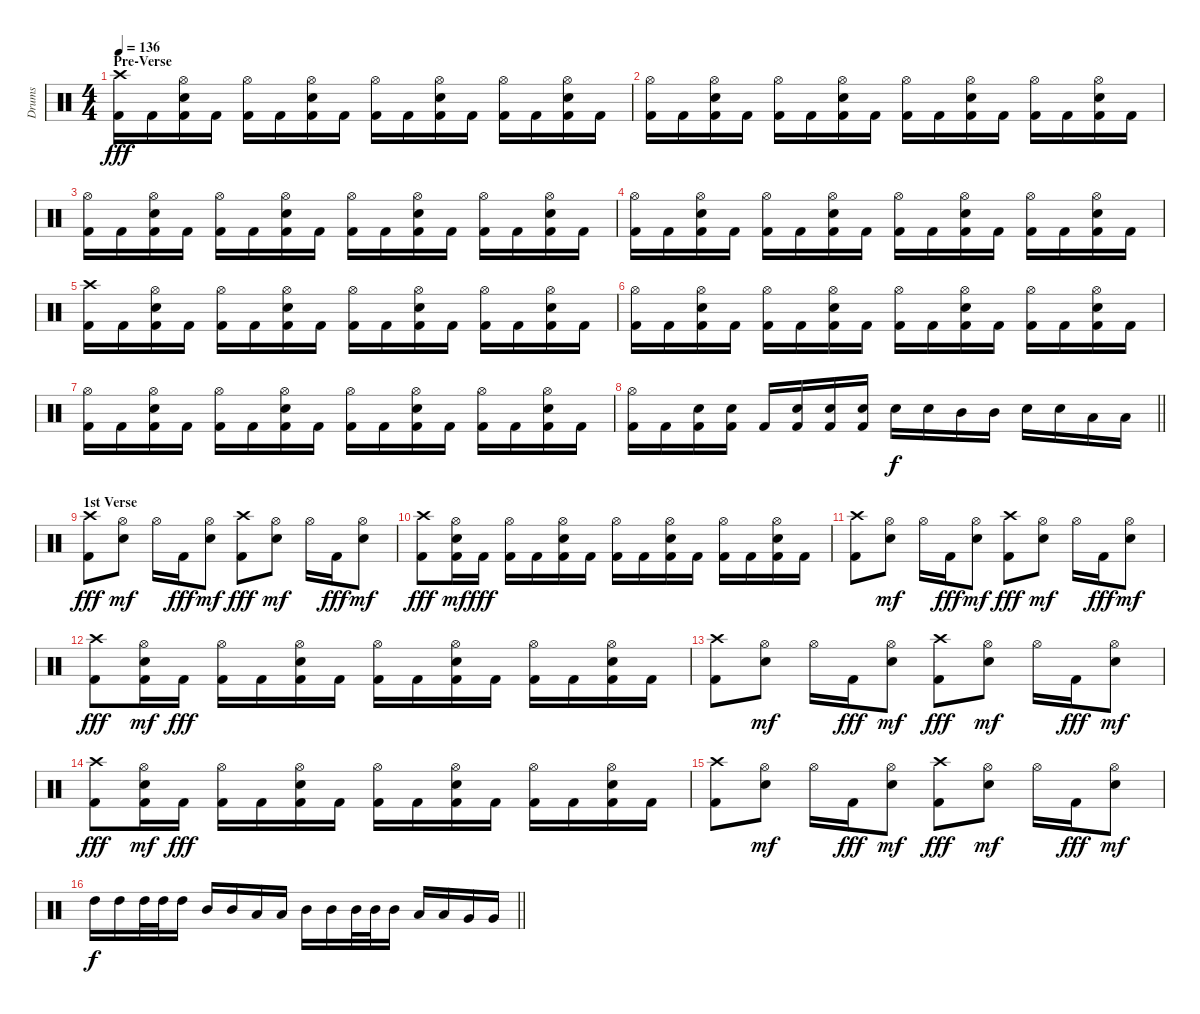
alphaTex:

\track ("Drums" "Drums") {instrument percussion}
\staff {score}
\articulation defaults
\ts (4 4)
\section ("" "Pre-Verse")
\tempo 136
\clef neutral
\ks c
("Crash high (hit)" "Kick (hit) 2").16{dy fff} "Kick (hit) 2".16 ("Hi-Hat (open)" "Electric Snare (hit)" "Kick (hit) 2").16 "Kick (hit) 2".16 ("Hi-Hat (open)" "Kick (hit) 2").16 "Kick (hit) 2".16 ("Hi-Hat (open)" "Electric Snare (hit)" "Kick (hit) 2").16 "Kick (hit) 2".16 ("Hi-Hat (open)" "Kick (hit) 2").16 "Kick (hit) 2".16 ("Hi-Hat (open)" "Electric Snare (hit)" "Kick (hit) 2").16 "Kick (hit) 2".16 ("Hi-Hat (open)" "Kick (hit) 2").16 "Kick (hit) 2".16 ("Hi-Hat (open)" "Electric Snare (hit)" "Kick (hit) 2").16 "Kick (hit) 2".16 |
("Hi-Hat (open)" "Kick (hit) 2").16 "Kick (hit) 2".16 ("Hi-Hat (open)" "Electric Snare (hit)" "Kick (hit) 2").16 "Kick (hit) 2".16 ("Hi-Hat (open)" "Kick (hit) 2").16 "Kick (hit) 2".16 ("Hi-Hat (open)" "Electric Snare (hit)" "Kick (hit) 2").16 "Kick (hit) 2".16 ("Hi-Hat (open)" "Kick (hit) 2").16 "Kick (hit) 2".16 ("Hi-Hat (open)" "Electric Snare (hit)" "Kick (hit) 2").16 "Kick (hit) 2".16 ("Hi-Hat (open)" "Kick (hit) 2").16 "Kick (hit) 2".16 ("Hi-Hat (open)" "Electric Snare (hit)" "Kick (hit) 2").16 "Kick (hit) 2".16 |
("Hi-Hat (open)" "Kick (hit) 2").16 "Kick (hit) 2".16 ("Hi-Hat (open)" "Electric Snare (hit)" "Kick (hit) 2").16 "Kick (hit) 2".16 ("Hi-Hat (open)" "Kick (hit) 2").16 "Kick (hit) 2".16 ("Hi-Hat (open)" "Electric Snare (hit)" "Kick (hit) 2").16 "Kick (hit) 2".16 ("Hi-Hat (open)" "Kick (hit) 2").16 "Kick (hit) 2".16 ("Hi-Hat (open)" "Electric Snare (hit)" "Kick (hit) 2").16 "Kick (hit) 2".16 ("Hi-Hat (open)" "Kick (hit) 2").16 "Kick (hit) 2".16 ("Hi-Hat (open)" "Electric Snare (hit)" "Kick (hit) 2").16 "Kick (hit) 2".16 |
("Hi-Hat (open)" "Kick (hit) 2").16 "Kick (hit) 2".16 ("Hi-Hat (open)" "Electric Snare (hit)" "Kick (hit) 2").16 "Kick (hit) 2".16 ("Hi-Hat (open)" "Kick (hit) 2").16 "Kick (hit) 2".16 ("Hi-Hat (open)" "Electric Snare (hit)" "Kick (hit) 2").16 "Kick (hit) 2".16 ("Hi-Hat (open)" "Kick (hit) 2").16 "Kick (hit) 2".16 ("Hi-Hat (open)" "Electric Snare (hit)" "Kick (hit) 2").16 "Kick (hit) 2".16 ("Hi-Hat (open)" "Kick (hit) 2").16 "Kick (hit) 2".16 ("Hi-Hat (open)" "Electric Snare (hit)" "Kick (hit) 2").16 "Kick (hit) 2".16 |
("Crash high (hit)" "Kick (hit) 2").16 "Kick (hit) 2".16 ("Hi-Hat (open)" "Electric Snare (hit)" "Kick (hit) 2").16 "Kick (hit) 2".16 ("Hi-Hat (open)" "Kick (hit) 2").16 "Kick (hit) 2".16 ("Hi-Hat (open)" "Electric Snare (hit)" "Kick (hit) 2").16 "Kick (hit) 2".16 ("Hi-Hat (open)" "Kick (hit) 2").16 "Kick (hit) 2".16 ("Hi-Hat (open)" "Electric Snare (hit)" "Kick (hit) 2").16 "Kick (hit) 2".16 ("Hi-Hat (open)" "Kick (hit) 2").16 "Kick (hit) 2".16 ("Hi-Hat (open)" "Electric Snare (hit)" "Kick (hit) 2").16 "Kick (hit) 2".16 |
("Hi-Hat (open)" "Kick (hit) 2").16 "Kick (hit) 2".16 ("Hi-Hat (open)" "Electric Snare (hit)" "Kick (hit) 2").16 "Kick (hit) 2".16 ("Hi-Hat (open)" "Kick (hit) 2").16 "Kick (hit) 2".16 ("Hi-Hat (open)" "Electric Snare (hit)" "Kick (hit) 2").16 "Kick (hit) 2".16 ("Hi-Hat (open)" "Kick (hit) 2").16 "Kick (hit) 2".16 ("Hi-Hat (open)" "Electric Snare (hit)" "Kick (hit) 2").16 "Kick (hit) 2".16 ("Hi-Hat (open)" "Kick (hit) 2").16 "Kick (hit) 2".16 ("Hi-Hat (open)" "Electric Snare (hit)" "Kick (hit) 2").16 "Kick (hit) 2".16 |
("Hi-Hat (open)" "Kick (hit) 2").16 "Kick (hit) 2".16 ("Hi-Hat (open)" "Electric Snare (hit)" "Kick (hit) 2").16 "Kick (hit) 2".16 ("Hi-Hat (open)" "Kick (hit) 2").16 "Kick (hit) 2".16 ("Hi-Hat (open)" "Electric Snare (hit)" "Kick (hit) 2").16 "Kick (hit) 2".16 ("Hi-Hat (open)" "Kick (hit) 2").16 "Kick (hit) 2".16 ("Hi-Hat (open)" "Electric Snare (hit)" "Kick (hit) 2").16 "Kick (hit) 2".16 ("Hi-Hat (open)" "Kick (hit) 2").16 "Kick (hit) 2".16 ("Hi-Hat (open)" "Electric Snare (hit)" "Kick (hit) 2").16 "Kick (hit) 2".16 |
\barLineRight lightlight
("Hi-Hat (open)" "Kick (hit) 2").16 "Kick (hit) 2".16 ("Electric Snare (hit)" "Kick (hit) 2").16 ("Electric Snare (hit)" "Kick (hit) 2").16 "Kick (hit) 2".16 ("Electric Snare (hit)" "Kick (hit) 2").16 ("Electric Snare (hit)" "Kick (hit) 2").16 ("Electric Snare (hit)" "Kick (hit) 2").16 "Electric Snare (hit)".16{dy f} "Electric Snare (hit)".16 "Mid Tom (hit)".16 "Mid Tom (hit)".16 "Electric Snare (hit)".16 "Electric Snare (hit)".16 "Low Tom (hit)".16 "Low Tom (hit)".16 |
\section ("" "1st Verse")
("Crash high (hit)" "Kick (hit) 2").8{dy fff} ("Hi-Hat (open)" "Electric Snare (hit)").8{dy mf} "Hi-Hat (open)".16 "Kick (hit) 2".16{dy fff} ("Hi-Hat (open)" "Electric Snare (hit)").8{dy mf} ("Crash high (hit)" "Kick (hit) 2").8{dy fff} ("Hi-Hat (open)" "Electric Snare (hit)").8{dy mf} "Hi-Hat (open)".16 "Kick (hit) 2".16{dy fff} ("Hi-Hat (open)" "Electric Snare (hit)").8{dy mf} |
("Crash high (hit)" "Kick (hit) 2").8{dy fff} ("Hi-Hat (open)" "Electric Snare (hit)" "Kick (hit) 2").16{dy mf} "Kick (hit) 2".16{dy fff} ("Hi-Hat (open)" "Kick (hit) 2").16 "Kick (hit) 2".16 ("Hi-Hat (open)" "Electric Snare (hit)" "Kick (hit) 2").16 "Kick (hit) 2".16 ("Hi-Hat (open)" "Kick (hit) 2").16 "Kick (hit) 2".16 ("Hi-Hat (open)" "Electric Snare (hit)" "Kick (hit) 2").16 "Kick (hit) 2".16 ("Hi-Hat (open)" "Kick (hit) 2").16 "Kick (hit) 2".16 ("Hi-Hat (open)" "Electric Snare (hit)" "Kick (hit) 2").16 "Kick (hit) 2".16 |
("Crash high (hit)" "Kick (hit) 2").8 ("Hi-Hat (open)" "Electric Snare (hit)").8{dy mf} "Hi-Hat (open)".16 "Kick (hit) 2".16{dy fff} ("Hi-Hat (open)" "Electric Snare (hit)").8{dy mf} ("Crash high (hit)" "Kick (hit) 2").8{dy fff} ("Hi-Hat (open)" "Electric Snare (hit)").8{dy mf} "Hi-Hat (open)".16 "Kick (hit) 2".16{dy fff} ("Hi-Hat (open)" "Electric Snare (hit)").8{dy mf} |
("Crash high (hit)" "Kick (hit) 2").8{dy fff} ("Hi-Hat (open)" "Electric Snare (hit)" "Kick (hit) 2").16{dy mf} "Kick (hit) 2".16{dy fff} ("Hi-Hat (open)" "Kick (hit) 2").16 "Kick (hit) 2".16 ("Hi-Hat (open)" "Electric Snare (hit)" "Kick (hit) 2").16 "Kick (hit) 2".16 ("Hi-Hat (open)" "Kick (hit) 2").16 "Kick (hit) 2".16 ("Hi-Hat (open)" "Electric Snare (hit)" "Kick (hit) 2").16 "Kick (hit) 2".16 ("Hi-Hat (open)" "Kick (hit) 2").16 "Kick (hit) 2".16 ("Hi-Hat (open)" "Electric Snare (hit)" "Kick (hit) 2").16 "Kick (hit) 2".16 |
("Crash high (hit)" "Kick (hit) 2").8 ("Hi-Hat (open)" "Electric Snare (hit)").8{dy mf} "Hi-Hat (open)".16 "Kick (hit) 2".16{dy fff} ("Hi-Hat (open)" "Electric Snare (hit)").8{dy mf} ("Crash high (hit)" "Kick (hit) 2").8{dy fff} ("Hi-Hat (open)" "Electric Snare (hit)").8{dy mf} "Hi-Hat (open)".16 "Kick (hit) 2".16{dy fff} ("Hi-Hat (open)" "Electric Snare (hit)").8{dy mf} |
("Crash high (hit)" "Kick (hit) 2").8{dy fff} ("Hi-Hat (open)" "Electric Snare (hit)" "Kick (hit) 2").16{dy mf} "Kick (hit) 2".16{dy fff} ("Hi-Hat (open)" "Kick (hit) 2").16 "Kick (hit) 2".16 ("Hi-Hat (open)" "Electric Snare (hit)" "Kick (hit) 2").16 "Kick (hit) 2".16 ("Hi-Hat (open)" "Kick (hit) 2").16 "Kick (hit) 2".16 ("Hi-Hat (open)" "Electric Snare (hit)" "Kick (hit) 2").16 "Kick (hit) 2".16 ("Hi-Hat (open)" "Kick (hit) 2").16 "Kick (hit) 2".16 ("Hi-Hat (open)" "Electric Snare (hit)" "Kick (hit) 2").16 "Kick (hit) 2".16 |
("Crash high (hit)" "Kick (hit) 2").8 ("Hi-Hat (open)" "Electric Snare (hit)").8{dy mf} "Hi-Hat (open)".16 "Kick (hit) 2".16{dy fff} ("Hi-Hat (open)" "Electric Snare (hit)").8{dy mf} ("Crash high (hit)" "Kick (hit) 2").8{dy fff} ("Hi-Hat (open)" "Electric Snare (hit)").8{dy mf} "Hi-Hat (open)".16 "Kick (hit) 2".16{dy fff} ("Hi-Hat (open)" "Electric Snare (hit)").8{dy mf} |
\barLineRight lightlight "High Tom (hit)".16{dy f} "High Tom (hit)".16 "High Tom (hit)".32 "High Tom (hit)".32 "High Tom (hit)".16 "Mid Tom (hit)".16 "Mid Tom (hit)".16 "Low Tom (hit)".16 "Low Tom (hit)".16 "Mid Tom (hit)".16 "Mid Tom (hit)".16 "Mid Tom (hit)".32 "Mid Tom (hit)".32 "Mid Tom (hit)".16 "Low Tom (hit)".16 "Low Tom (hit)".16 "Very Low Tom (hit)".16 "Very Low Tom (hit)".16
